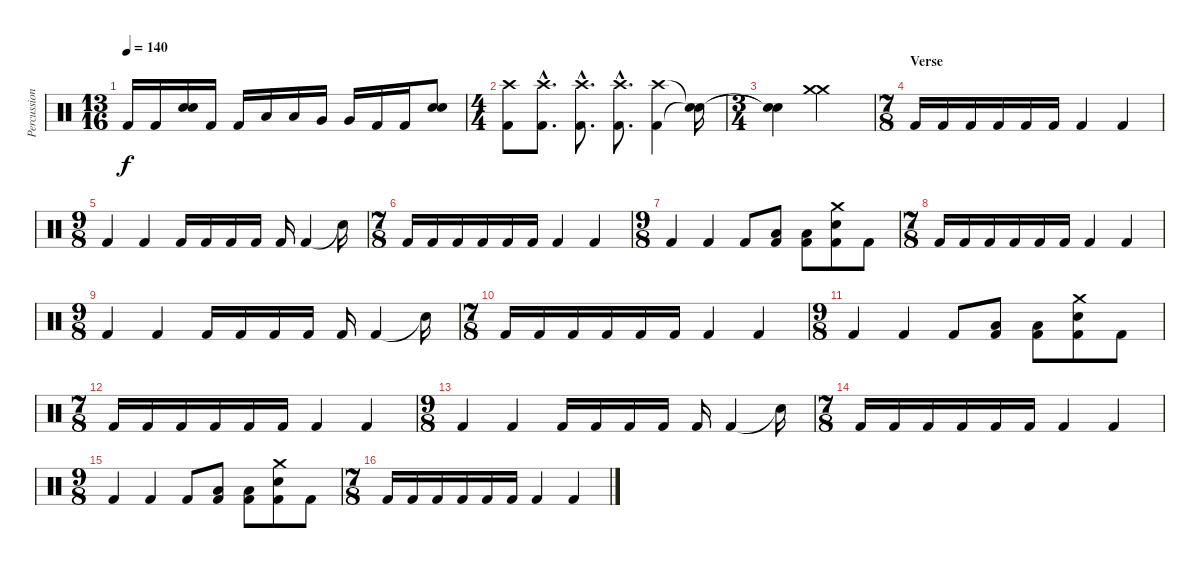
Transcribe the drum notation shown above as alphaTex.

\track ("Percussion" "Percussion") {instrument percussion}
\staff {score}
\articulation defaults
\ts (13 16)
\tempo 140
\clef neutral
\ks c "Kick (hit) 2".16{dy f} "Kick (hit) 2".16
("Electric Snare (hit)" "Snare (hit) 2").16 "Kick (hit) 2".16 "Kick (hit) 2".16 "Low Tom (hit)".16 "Low Tom (hit)".16 "Very Low Tom (hit)".16 "Very Low Tom (hit)".16 "Kick (hit) 2".16 "Kick (hit) 2".16 ("Electric Snare (hit)" "Snare (hit) 2").8 |
\ts (4 4)
("Crash high (hit)" "Kick (hit) 2").8 ("Crash high (hit)"{hac} "Kick (hit) 2"{hac}).8{d} ("Crash high (hit)"{hac} "Kick (hit) 2"{hac}).8{d} ("Crash high (hit)"{hac} "Kick (hit) 2"{hac}).8{d} ("Crash high (hit)" "Kick (hit) 2").4 ("Snare (hit)"{t} "Snare (hit)"{t}).16 |
\ts (3 4)
("Snare (hit)"{t} "Snare (hit)"{t}).4 ("Crash medium (hit)" "Crash medium (hit)").2 |
\ts (7 8)
\section ("" "Verse")
"Kick (hit) 2".16 "Kick (hit) 2".16 "Kick (hit) 2".16 "Kick (hit) 2".16 "Kick (hit) 2".16 "Kick (hit) 2".16 "Kick (hit) 2".4 "Kick (hit) 2".4 |
\ts (9 8)
"Kick (hit) 2".4 "Kick (hit) 2".4 "Kick (hit) 2".16 "Kick (hit) 2".16 "Kick (hit) 2".16 "Kick (hit) 2".16 "Kick (hit) 2".16 "Kick (hit) 2".4 "Snare (hit)"{t}.16 |
\ts (7 8)
"Kick (hit) 2".16 "Kick (hit) 2".16 "Kick (hit) 2".16 "Kick (hit) 2".16 "Kick (hit) 2".16 "Kick (hit) 2".16 "Kick (hit) 2".4 "Kick (hit) 2".4 |
\ts (9 8)
"Kick (hit) 2".4 "Kick (hit) 2".4 "Kick (hit) 2".8 ("Low Tom (hit)" "Kick (hit) 2").8 ("Low Tom (hit)" "Kick (hit) 2").8 ("Crash medium (hit)" "Electric Snare (hit)" "Kick (hit) 2").8 "Kick (hit) 2".8 |
\ts (7 8)
"Kick (hit) 2".16 "Kick (hit) 2".16 "Kick (hit) 2".16 "Kick (hit) 2".16 "Kick (hit) 2".16 "Kick (hit) 2".16 "Kick (hit) 2".4 "Kick (hit) 2".4 |
\ts (9 8)
"Kick (hit) 2".4 "Kick (hit) 2".4 "Kick (hit) 2".16 "Kick (hit) 2".16 "Kick (hit) 2".16 "Kick (hit) 2".16 "Kick (hit) 2".16 "Kick (hit) 2".4 "Snare (hit)"{t}.16 |
\ts (7 8)
"Kick (hit) 2".16 "Kick (hit) 2".16 "Kick (hit) 2".16 "Kick (hit) 2".16 "Kick (hit) 2".16 "Kick (hit) 2".16 "Kick (hit) 2".4 "Kick (hit) 2".4 |
\ts (9 8)
"Kick (hit) 2".4 "Kick (hit) 2".4 "Kick (hit) 2".8 ("Low Tom (hit)" "Kick (hit) 2").8 ("Low Tom (hit)" "Kick (hit) 2").8 ("Crash medium (hit)" "Electric Snare (hit)" "Kick (hit) 2").8 "Kick (hit) 2".8 |
\ts (7 8)
"Kick (hit) 2".16 "Kick (hit) 2".16 "Kick (hit) 2".16 "Kick (hit) 2".16 "Kick (hit) 2".16 "Kick (hit) 2".16 "Kick (hit) 2".4 "Kick (hit) 2".4 |
\ts (9 8)
"Kick (hit) 2".4 "Kick (hit) 2".4 "Kick (hit) 2".16 "Kick (hit) 2".16 "Kick (hit) 2".16 "Kick (hit) 2".16 "Kick (hit) 2".16 "Kick (hit) 2".4 "Snare (hit)"{t}.16 |
\ts (7 8)
"Kick (hit) 2".16 "Kick (hit) 2".16 "Kick (hit) 2".16 "Kick (hit) 2".16 "Kick (hit) 2".16 "Kick (hit) 2".16 "Kick (hit) 2".4 "Kick (hit) 2".4 |
\ts (9 8)
"Kick (hit) 2".4 "Kick (hit) 2".4 "Kick (hit) 2".8 ("Low Tom (hit)" "Kick (hit) 2").8 ("Low Tom (hit)" "Kick (hit) 2").8 ("Crash medium (hit)" "Electric Snare (hit)" "Kick (hit) 2").8 "Kick (hit) 2".8 |
\ts (7 8)
"Kick (hit) 2".16 "Kick (hit) 2".16 "Kick (hit) 2".16 "Kick (hit) 2".16 "Kick (hit) 2".16 "Kick (hit) 2".16 "Kick (hit) 2".4 "Kick (hit) 2".4
